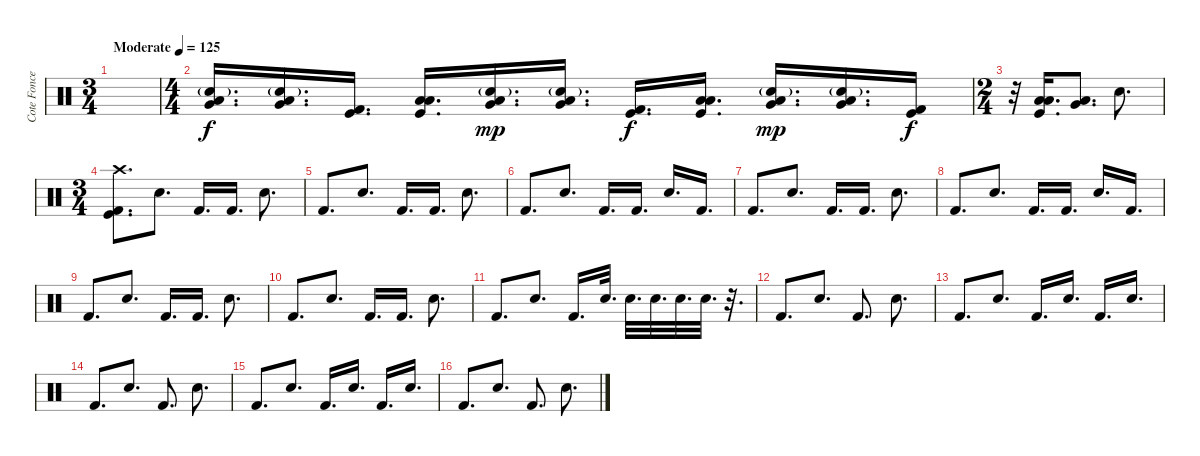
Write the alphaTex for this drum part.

\track ("Cote Foncea" "Cote Fonce") {instrument percussion}
\staff {score}
\articulation defaults
\ts (3 4)
\tempo (125 "Moderate")
\clef neutral
\ks c
|
\ts (4 4)
("Very Low Tom (hit)" "Low Floor Tom (hit)" "Snare (hit) 2"{g}).16{d volume 15} ("Very Low Tom (hit)" "Low Floor Tom (hit)" "Snare (hit) 2"{g}).16{d} ("Kick (hit) 2" "Kick (hit)").16{d dy f} ("Low Tom (hit)" "Low Floor Tom (hit)" "Kick (hit)").16{d} ("Very Low Tom (hit)" "Low Floor Tom (hit)" "Snare (hit) 2"{g}).16{d dy mp} ("Very Low Tom (hit)" "Low Floor Tom (hit)" "Snare (hit) 2"{g}).16{d} ("Kick (hit) 2" "Kick (hit)").16{d dy f} ("Low Tom (hit)" "Low Floor Tom (hit)" "Kick (hit)").16{d} ("Very Low Tom (hit)" "Low Floor Tom (hit)" "Snare (hit) 2"{g}).16{d dy mp} ("Very Low Tom (hit)" "Low Floor Tom (hit)" "Snare (hit) 2"{g}).16{d} ("Kick (hit) 2" "Kick (hit)").16{dy f} |
\ts (2 4)
r.32 ("Low Tom (hit)" "Low Floor Tom (hit)" "Kick (hit)").16{d} ("Very Low Tom (hit)" "Low Floor Tom (hit)").8{d} "Snare (hit) 2".8{d} |
\ts (3 4)
("Crash high (hit)" "Kick (hit) 2" "Kick (hit)").8{d} "Snare (hit) 2".8{d} "Kick (hit) 2".16{d} "Kick (hit) 2".16{d} "Snare (hit) 2".8{d} |
"Kick (hit) 2".8{d} "Snare (hit) 2".8{d} "Kick (hit) 2".16{d} "Kick (hit) 2".16{d} "Snare (hit) 2".8{d} |
"Kick (hit) 2".8{d} "Snare (hit) 2".8{d} "Kick (hit) 2".16{d} "Kick (hit) 2".16{d} "Snare (hit) 2".16{d} "Kick (hit) 2".16{d} |
"Kick (hit) 2".8{d} "Snare (hit) 2".8{d} "Kick (hit) 2".16{d} "Kick (hit) 2".16{d} "Snare (hit) 2".8{d} |
"Kick (hit) 2".8{d} "Snare (hit) 2".8{d} "Kick (hit) 2".16{d} "Kick (hit) 2".16{d} "Snare (hit) 2".16{d} "Kick (hit) 2".16{d} |
"Kick (hit) 2".8{d} "Snare (hit) 2".8{d} "Kick (hit) 2".16{d} "Kick (hit) 2".16{d} "Snare (hit) 2".8{d} |
"Kick (hit) 2".8{d} "Snare (hit) 2".8{d} "Kick (hit) 2".16{d} "Kick (hit) 2".16{d} "Snare (hit) 2".8{d} |
"Kick (hit) 2".8{d} "Snare (hit) 2".8{d} "Kick (hit) 2".16{d} "Snare (hit) 2".32{d} "Snare (hit) 2".32{d} "Snare (hit) 2".32{d} "Snare (hit) 2".32{d} "Snare (hit) 2".32{d} r.32{d} |
"Kick (hit) 2".8{d} "Snare (hit) 2".8{d} "Kick (hit) 2".8{d} "Snare (hit) 2".8{d} |
"Kick (hit) 2".8{d} "Snare (hit) 2".8{d} "Kick (hit) 2".16{d} "Snare (hit) 2".16{d} "Kick (hit) 2".16{d} "Snare (hit) 2".16{d} |
"Kick (hit) 2".8{d} "Snare (hit) 2".8{d} "Kick (hit) 2".8{d} "Snare (hit) 2".8{d} |
"Kick (hit) 2".8{d} "Snare (hit) 2".8{d} "Kick (hit) 2".16{d} "Snare (hit) 2".16{d} "Kick (hit) 2".16{d} "Snare (hit) 2".16{d} |
"Kick (hit) 2".8{d} "Snare (hit) 2".8{d} "Kick (hit) 2".8{d} "Snare (hit) 2".8{d}
